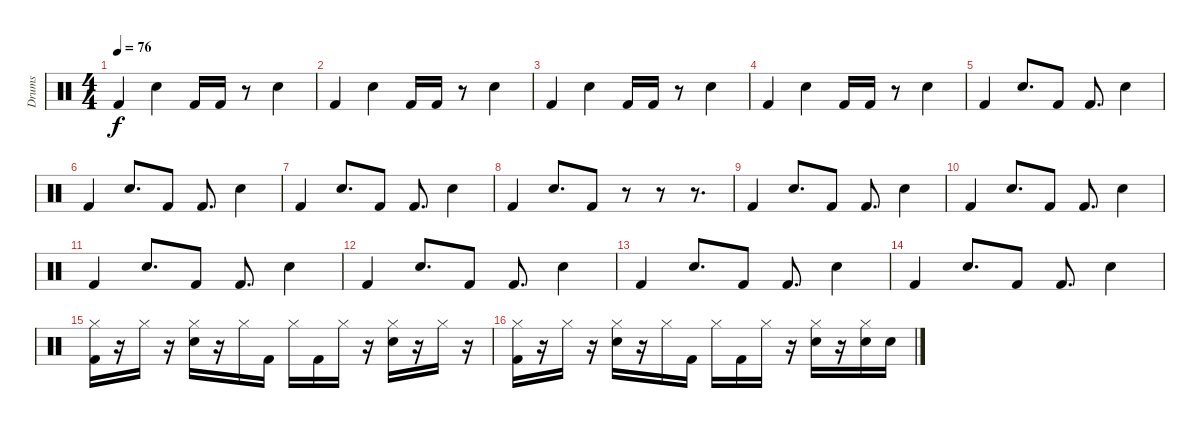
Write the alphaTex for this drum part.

\track ("Drums" "Drums") {instrument percussion}
\staff {score}
\articulation defaults
\ts (4 4)
\tempo 76
\clef neutral
\ks c "Kick (hit) 2".4{dy f} "Snare (hit) 2".4 "Kick (hit) 2".16 "Kick (hit) 2".16
r.8 "Snare (hit) 2".4 |
"Kick (hit) 2".4 "Snare (hit) 2".4 "Kick (hit) 2".16 "Kick (hit) 2".16 r.8 "Snare (hit) 2".4 |
"Kick (hit) 2".4 "Snare (hit) 2".4 "Kick (hit) 2".16 "Kick (hit) 2".16 r.8 "Snare (hit) 2".4 |
"Kick (hit) 2".4 "Snare (hit) 2".4 "Kick (hit) 2".16 "Kick (hit) 2".16 r.8 "Snare (hit) 2".4 |
"Kick (hit) 2".4 "Snare (hit) 2".8{d} "Kick (hit) 2".8 "Kick (hit) 2".8{d} "Snare (hit) 2".4 |
"Kick (hit) 2".4 "Snare (hit) 2".8{d} "Kick (hit) 2".8 "Kick (hit) 2".8{d} "Snare (hit) 2".4 |
"Kick (hit) 2".4 "Snare (hit) 2".8{d} "Kick (hit) 2".8 "Kick (hit) 2".8{d} "Snare (hit) 2".4 |
"Kick (hit) 2".4 "Snare (hit) 2".8{d} "Kick (hit) 2".8 r.8 r.8 r.8{d} |
"Kick (hit) 2".4 "Snare (hit) 2".8{d} "Kick (hit) 2".8 "Kick (hit) 2".8{d} "Snare (hit) 2".4 |
"Kick (hit) 2".4 "Snare (hit) 2".8{d} "Kick (hit) 2".8 "Kick (hit) 2".8{d} "Snare (hit) 2".4 |
"Kick (hit) 2".4 "Snare (hit) 2".8{d} "Kick (hit) 2".8 "Kick (hit) 2".8{d} "Snare (hit) 2".4 |
"Kick (hit) 2".4 "Snare (hit) 2".8{d} "Kick (hit) 2".8 "Kick (hit) 2".8{d} "Snare (hit) 2".4 |
"Kick (hit) 2".4 "Snare (hit) 2".8{d} "Kick (hit) 2".8 "Kick (hit) 2".8{d} "Snare (hit) 2".4 |
"Kick (hit) 2".4 "Snare (hit) 2".8{d} "Kick (hit) 2".8 "Kick (hit) 2".8{d} "Snare (hit) 2".4 |
("Kick (hit) 2" "Hi-Hat (closed)").16 r.16 "Hi-Hat (closed)".16 r.16 ("Snare (hit) 2" "Hi-Hat (closed)").16 r.16 "Hi-Hat (closed)".16 "Kick (hit) 2".16 "Hi-Hat (closed)".16 "Kick (hit) 2".16 "Hi-Hat (closed)".16 r.16 ("Snare (hit) 2" "Hi-Hat (closed)").16 r.16 "Hi-Hat (closed)".16 r.16 |
("Kick (hit) 2" "Hi-Hat (closed)").16 r.16 "Hi-Hat (closed)".16 r.16 ("Snare (hit) 2" "Hi-Hat (closed)").16 r.16 "Hi-Hat (closed)".16 "Kick (hit) 2".16 "Hi-Hat (closed)".16 "Kick (hit) 2".16 "Hi-Hat (closed)".16 r.16 ("Snare (hit) 2" "Hi-Hat (closed)").16 r.16 ("Snare (hit) 2" "Hi-Hat (closed)").16 "Snare (hit) 2".16
